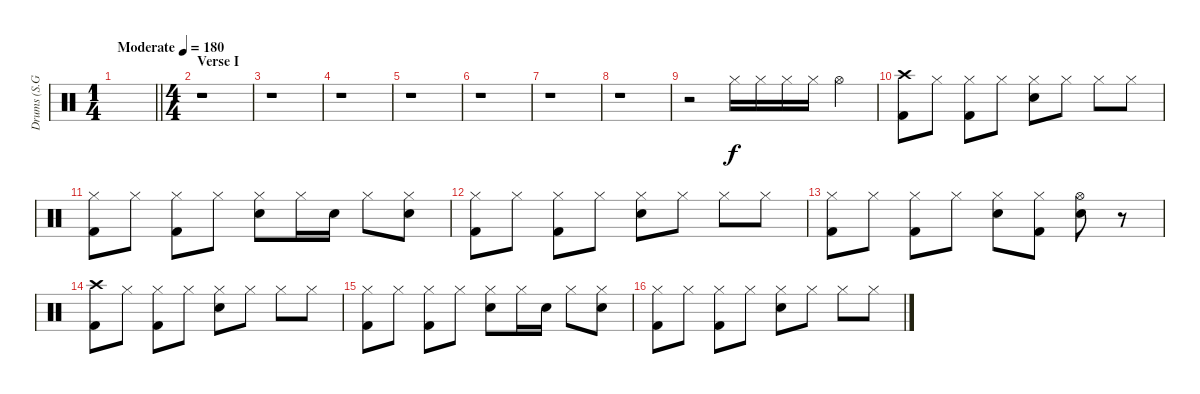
\track ("Drums (S.G. Yim)" "Drums (S.G") {instrument percussion}
\staff {score}
\articulation defaults
\ts (1 4)
\tempo (180 "Moderate")
\clef neutral
\barLineRight lightlight
\ks c
|
\ts (4 4)
\section ("" "Verse I")
r.1 |
r.1 |
r.1 |
r.1 |
r.1 |
r.1 |
r.1 |
r.2 "Hi-Hat (closed)".16 "Hi-Hat (closed)".16 "Hi-Hat (closed)".16 "Hi-Hat (closed)".16 "Hi-Hat (open)".4 |
("Crash high (hit)" "Kick (hit) 2").8 "Hi-Hat (closed)".8 ("Hi-Hat (closed)" "Kick (hit) 2").8 "Hi-Hat (closed)".8 ("Hi-Hat (closed)" "Snare (hit) 2").8 "Hi-Hat (closed)".8 "Hi-Hat (closed)".8 "Hi-Hat (closed)".8 |
("Hi-Hat (closed)" "Kick (hit) 2").8 "Hi-Hat (closed)".8 ("Hi-Hat (closed)" "Kick (hit) 2").8 "Hi-Hat (closed)".8 ("Hi-Hat (closed)" "Snare (hit) 2").8 "Hi-Hat (closed)".16 "Snare (hit) 2".16 "Hi-Hat (closed)".8 ("Hi-Hat (closed)" "Snare (hit) 2").8 |
("Hi-Hat (closed)" "Kick (hit) 2").8 "Hi-Hat (closed)".8 ("Hi-Hat (closed)" "Kick (hit) 2").8 "Hi-Hat (closed)".8 ("Hi-Hat (closed)" "Snare (hit) 2").8 "Hi-Hat (closed)".8 "Hi-Hat (closed)".8 "Hi-Hat (closed)".8 |
("Hi-Hat (closed)" "Kick (hit) 2").8 "Hi-Hat (closed)".8 ("Hi-Hat (closed)" "Kick (hit) 2").8 "Hi-Hat (closed)".8 ("Hi-Hat (closed)" "Snare (hit) 2").8 ("Hi-Hat (closed)" "Kick (hit) 2").8 ("Hi-Hat (open)" "Snare (hit) 2").8 r.8 |
("Crash high (hit)" "Kick (hit) 2").8 "Hi-Hat (closed)".8 ("Hi-Hat (closed)" "Kick (hit) 2").8 "Hi-Hat (closed)".8 ("Hi-Hat (closed)" "Snare (hit) 2").8 "Hi-Hat (closed)".8 "Hi-Hat (closed)".8 "Hi-Hat (closed)".8 |
("Hi-Hat (closed)" "Kick (hit) 2").8 "Hi-Hat (closed)".8 ("Hi-Hat (closed)" "Kick (hit) 2").8 "Hi-Hat (closed)".8 ("Hi-Hat (closed)" "Snare (hit) 2").8 "Hi-Hat (closed)".16 "Snare (hit) 2".16 "Hi-Hat (closed)".8 ("Hi-Hat (closed)" "Snare (hit) 2").8 |
("Hi-Hat (closed)" "Kick (hit) 2").8 "Hi-Hat (closed)".8 ("Hi-Hat (closed)" "Kick (hit) 2").8 "Hi-Hat (closed)".8 ("Hi-Hat (closed)" "Snare (hit) 2").8 "Hi-Hat (closed)".8 "Hi-Hat (closed)".8 "Hi-Hat (closed)".8
